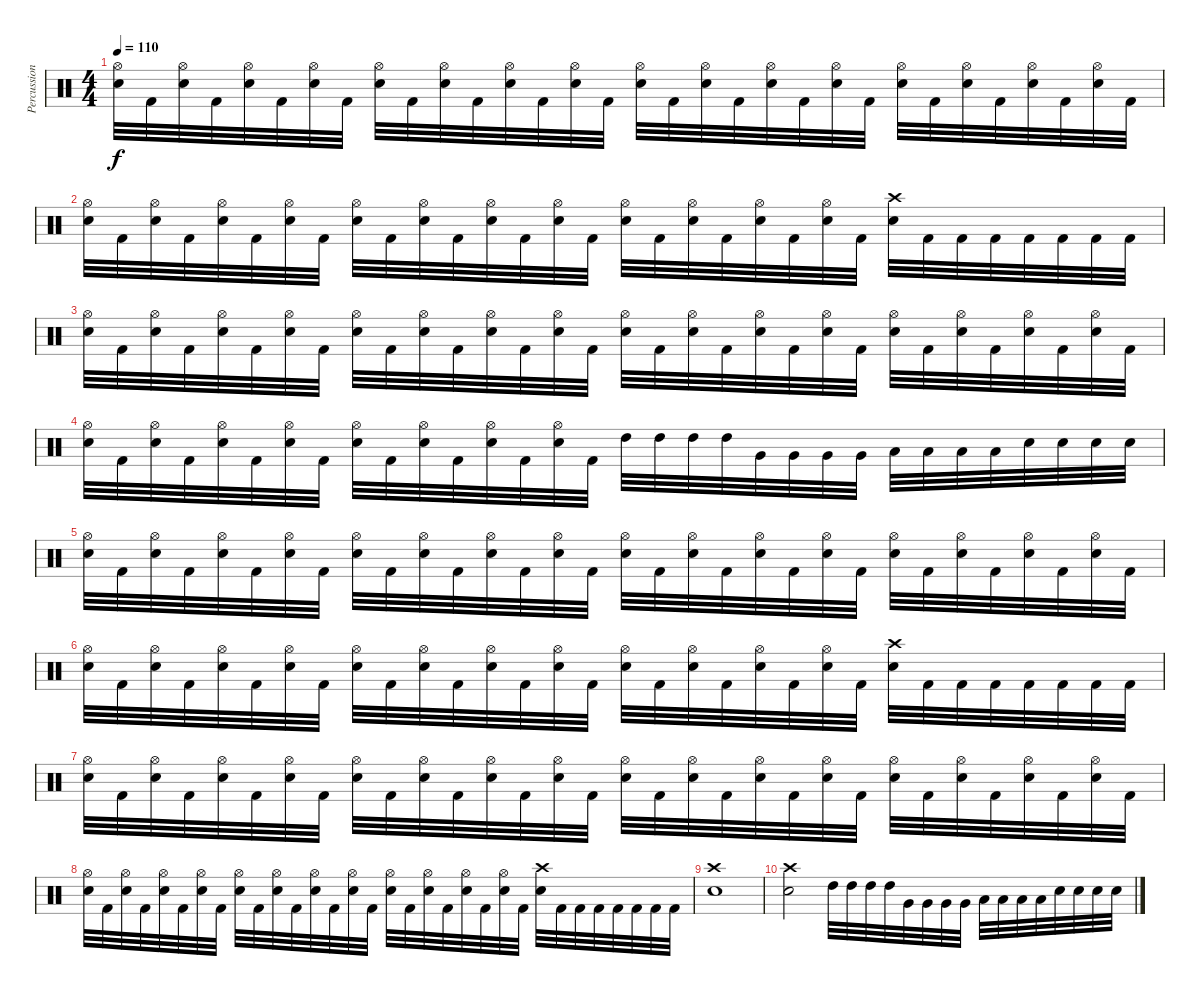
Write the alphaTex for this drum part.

\track ("Percussion" "Percussion") {instrument percussion}
\staff {score}
\articulation defaults
\ts (4 4)
\tempo 110
\clef neutral
\ks c
("Hi-Hat (open)" "Electric Snare (hit)").32{dy f} "Kick (hit) 2".32 ("Hi-Hat (open)" "Electric Snare (hit)").32 "Kick (hit) 2".32 ("Hi-Hat (open)" "Electric Snare (hit)").32 "Kick (hit) 2".32 ("Hi-Hat (open)" "Electric Snare (hit)").32 "Kick (hit) 2".32 ("Hi-Hat (open)" "Electric Snare (hit)").32 "Kick (hit) 2".32 ("Hi-Hat (open)" "Electric Snare (hit)").32 "Kick (hit) 2".32 ("Hi-Hat (open)" "Electric Snare (hit)").32 "Kick (hit) 2".32 ("Hi-Hat (open)" "Electric Snare (hit)").32 "Kick (hit) 2".32 ("Hi-Hat (open)" "Electric Snare (hit)").32 "Kick (hit) 2".32 ("Hi-Hat (open)" "Electric Snare (hit)").32 "Kick (hit) 2".32 ("Hi-Hat (open)" "Electric Snare (hit)").32 "Kick (hit) 2".32 ("Hi-Hat (open)" "Electric Snare (hit)").32 "Kick (hit) 2".32 ("Hi-Hat (open)" "Electric Snare (hit)").32 "Kick (hit) 2".32 ("Hi-Hat (open)" "Electric Snare (hit)").32 "Kick (hit) 2".32 ("Hi-Hat (open)" "Electric Snare (hit)").32 "Kick (hit) 2".32 ("Hi-Hat (open)" "Electric Snare (hit)").32 "Kick (hit) 2".32 |
("Hi-Hat (open)" "Electric Snare (hit)").32 "Kick (hit) 2".32 ("Hi-Hat (open)" "Electric Snare (hit)").32 "Kick (hit) 2".32 ("Hi-Hat (open)" "Electric Snare (hit)").32 "Kick (hit) 2".32 ("Hi-Hat (open)" "Electric Snare (hit)").32 "Kick (hit) 2".32 ("Hi-Hat (open)" "Electric Snare (hit)").32 "Kick (hit) 2".32 ("Hi-Hat (open)" "Electric Snare (hit)").32 "Kick (hit) 2".32 ("Hi-Hat (open)" "Electric Snare (hit)").32 "Kick (hit) 2".32 ("Hi-Hat (open)" "Electric Snare (hit)").32 "Kick (hit) 2".32 ("Hi-Hat (open)" "Electric Snare (hit)").32 "Kick (hit) 2".32 ("Hi-Hat (open)" "Electric Snare (hit)").32 "Kick (hit) 2".32 ("Hi-Hat (open)" "Electric Snare (hit)").32 "Kick (hit) 2".32 ("Hi-Hat (open)" "Electric Snare (hit)").32 "Kick (hit) 2".32 ("Crash high (hit)" "Electric Snare (hit)").32 "Kick (hit) 2".32 "Kick (hit) 2".32 "Kick (hit) 2".32 "Kick (hit) 2".32 "Kick (hit) 2".32 "Kick (hit) 2".32 "Kick (hit) 2".32 |
("Hi-Hat (open)" "Electric Snare (hit)").32 "Kick (hit) 2".32 ("Hi-Hat (open)" "Electric Snare (hit)").32 "Kick (hit) 2".32 ("Hi-Hat (open)" "Electric Snare (hit)").32 "Kick (hit) 2".32 ("Hi-Hat (open)" "Electric Snare (hit)").32 "Kick (hit) 2".32 ("Hi-Hat (open)" "Electric Snare (hit)").32 "Kick (hit) 2".32 ("Hi-Hat (open)" "Electric Snare (hit)").32 "Kick (hit) 2".32 ("Hi-Hat (open)" "Electric Snare (hit)").32 "Kick (hit) 2".32 ("Hi-Hat (open)" "Electric Snare (hit)").32 "Kick (hit) 2".32 ("Hi-Hat (open)" "Electric Snare (hit)").32 "Kick (hit) 2".32 ("Hi-Hat (open)" "Electric Snare (hit)").32 "Kick (hit) 2".32 ("Hi-Hat (open)" "Electric Snare (hit)").32 "Kick (hit) 2".32 ("Hi-Hat (open)" "Electric Snare (hit)").32 "Kick (hit) 2".32 ("Hi-Hat (open)" "Electric Snare (hit)").32 "Kick (hit) 2".32 ("Hi-Hat (open)" "Electric Snare (hit)").32 "Kick (hit) 2".32 ("Hi-Hat (open)" "Electric Snare (hit)").32 "Kick (hit) 2".32 ("Hi-Hat (open)" "Electric Snare (hit)").32 "Kick (hit) 2".32 |
("Hi-Hat (open)" "Electric Snare (hit)").32 "Kick (hit) 2".32 ("Hi-Hat (open)" "Electric Snare (hit)").32 "Kick (hit) 2".32 ("Hi-Hat (open)" "Electric Snare (hit)").32 "Kick (hit) 2".32 ("Hi-Hat (open)" "Electric Snare (hit)").32 "Kick (hit) 2".32 ("Hi-Hat (open)" "Electric Snare (hit)").32 "Kick (hit) 2".32 ("Hi-Hat (open)" "Electric Snare (hit)").32 "Kick (hit) 2".32 ("Hi-Hat (open)" "Electric Snare (hit)").32 "Kick (hit) 2".32 ("Hi-Hat (open)" "Electric Snare (hit)").32 "Kick (hit) 2".32 "High Tom (hit)".32 "High Tom (hit)".32 "High Tom (hit)".32 "High Tom (hit)".32 "Very Low Tom (hit)".32 "Very Low Tom (hit)".32 "Very Low Tom (hit)".32 "Very Low Tom (hit)".32 "Low Floor Tom (hit)".32 "Low Floor Tom (hit)".32 "Low Floor Tom (hit)".32 "Low Floor Tom (hit)".32 "Electric Snare (hit)".32 "Electric Snare (hit)".32 "Electric Snare (hit)".32 "Electric Snare (hit)".32 |
("Hi-Hat (open)" "Electric Snare (hit)").32 "Kick (hit) 2".32 ("Hi-Hat (open)" "Electric Snare (hit)").32 "Kick (hit) 2".32 ("Hi-Hat (open)" "Electric Snare (hit)").32 "Kick (hit) 2".32 ("Hi-Hat (open)" "Electric Snare (hit)").32 "Kick (hit) 2".32 ("Hi-Hat (open)" "Electric Snare (hit)").32 "Kick (hit) 2".32 ("Hi-Hat (open)" "Electric Snare (hit)").32 "Kick (hit) 2".32 ("Hi-Hat (open)" "Electric Snare (hit)").32 "Kick (hit) 2".32 ("Hi-Hat (open)" "Electric Snare (hit)").32 "Kick (hit) 2".32 ("Hi-Hat (open)" "Electric Snare (hit)").32 "Kick (hit) 2".32 ("Hi-Hat (open)" "Electric Snare (hit)").32 "Kick (hit) 2".32 ("Hi-Hat (open)" "Electric Snare (hit)").32 "Kick (hit) 2".32 ("Hi-Hat (open)" "Electric Snare (hit)").32 "Kick (hit) 2".32 ("Hi-Hat (open)" "Electric Snare (hit)").32 "Kick (hit) 2".32 ("Hi-Hat (open)" "Electric Snare (hit)").32 "Kick (hit) 2".32 ("Hi-Hat (open)" "Electric Snare (hit)").32 "Kick (hit) 2".32 ("Hi-Hat (open)" "Electric Snare (hit)").32 "Kick (hit) 2".32 |
("Hi-Hat (open)" "Electric Snare (hit)").32 "Kick (hit) 2".32 ("Hi-Hat (open)" "Electric Snare (hit)").32 "Kick (hit) 2".32 ("Hi-Hat (open)" "Electric Snare (hit)").32 "Kick (hit) 2".32 ("Hi-Hat (open)" "Electric Snare (hit)").32 "Kick (hit) 2".32 ("Hi-Hat (open)" "Electric Snare (hit)").32 "Kick (hit) 2".32 ("Hi-Hat (open)" "Electric Snare (hit)").32 "Kick (hit) 2".32 ("Hi-Hat (open)" "Electric Snare (hit)").32 "Kick (hit) 2".32 ("Hi-Hat (open)" "Electric Snare (hit)").32 "Kick (hit) 2".32 ("Hi-Hat (open)" "Electric Snare (hit)").32 "Kick (hit) 2".32 ("Hi-Hat (open)" "Electric Snare (hit)").32 "Kick (hit) 2".32 ("Hi-Hat (open)" "Electric Snare (hit)").32 "Kick (hit) 2".32 ("Hi-Hat (open)" "Electric Snare (hit)").32 "Kick (hit) 2".32 ("Crash high (hit)" "Electric Snare (hit)").32 "Kick (hit) 2".32 "Kick (hit) 2".32 "Kick (hit) 2".32 "Kick (hit) 2".32 "Kick (hit) 2".32 "Kick (hit) 2".32 "Kick (hit) 2".32 |
("Hi-Hat (open)" "Electric Snare (hit)").32 "Kick (hit) 2".32 ("Hi-Hat (open)" "Electric Snare (hit)").32 "Kick (hit) 2".32 ("Hi-Hat (open)" "Electric Snare (hit)").32 "Kick (hit) 2".32 ("Hi-Hat (open)" "Electric Snare (hit)").32 "Kick (hit) 2".32 ("Hi-Hat (open)" "Electric Snare (hit)").32 "Kick (hit) 2".32 ("Hi-Hat (open)" "Electric Snare (hit)").32 "Kick (hit) 2".32 ("Hi-Hat (open)" "Electric Snare (hit)").32 "Kick (hit) 2".32 ("Hi-Hat (open)" "Electric Snare (hit)").32 "Kick (hit) 2".32 ("Hi-Hat (open)" "Electric Snare (hit)").32 "Kick (hit) 2".32 ("Hi-Hat (open)" "Electric Snare (hit)").32 "Kick (hit) 2".32 ("Hi-Hat (open)" "Electric Snare (hit)").32 "Kick (hit) 2".32 ("Hi-Hat (open)" "Electric Snare (hit)").32 "Kick (hit) 2".32 ("Hi-Hat (open)" "Electric Snare (hit)").32 "Kick (hit) 2".32 ("Hi-Hat (open)" "Electric Snare (hit)").32 "Kick (hit) 2".32 ("Hi-Hat (open)" "Electric Snare (hit)").32 "Kick (hit) 2".32 ("Hi-Hat (open)" "Electric Snare (hit)").32 "Kick (hit) 2".32 |
("Hi-Hat (open)" "Electric Snare (hit)").32 "Kick (hit) 2".32 ("Hi-Hat (open)" "Electric Snare (hit)").32 "Kick (hit) 2".32 ("Hi-Hat (open)" "Electric Snare (hit)").32 "Kick (hit) 2".32 ("Hi-Hat (open)" "Electric Snare (hit)").32 "Kick (hit) 2".32 ("Hi-Hat (open)" "Electric Snare (hit)").32 "Kick (hit) 2".32 ("Hi-Hat (open)" "Electric Snare (hit)").32 "Kick (hit) 2".32 ("Hi-Hat (open)" "Electric Snare (hit)").32 "Kick (hit) 2".32 ("Hi-Hat (open)" "Electric Snare (hit)").32 "Kick (hit) 2".32 ("Hi-Hat (open)" "Electric Snare (hit)").32 "Kick (hit) 2".32 ("Hi-Hat (open)" "Electric Snare (hit)").32 "Kick (hit) 2".32 ("Hi-Hat (open)" "Electric Snare (hit)").32 "Kick (hit) 2".32 ("Hi-Hat (open)" "Electric Snare (hit)").32 "Kick (hit) 2".32 ("Crash high (hit)" "Electric Snare (hit)").32 "Kick (hit) 2".32 "Kick (hit) 2".32 "Kick (hit) 2".32 "Kick (hit) 2".32 "Kick (hit) 2".32 "Kick (hit) 2".32 "Kick (hit) 2".32 |
("Crash high (hit)" "Electric Snare (hit)").1 |
("Crash high (hit)" "Electric Snare (hit)").2 "High Tom (hit)".32 "High Tom (hit)".32 "High Tom (hit)".32 "High Tom (hit)".32 "Very Low Tom (hit)".32 "Very Low Tom (hit)".32 "Very Low Tom (hit)".32 "Very Low Tom (hit)".32 "Low Floor Tom (hit)".32 "Low Floor Tom (hit)".32 "Low Floor Tom (hit)".32 "Low Floor Tom (hit)".32 "Electric Snare (hit)".32 "Electric Snare (hit)".32 "Electric Snare (hit)".32 "Electric Snare (hit)".32
